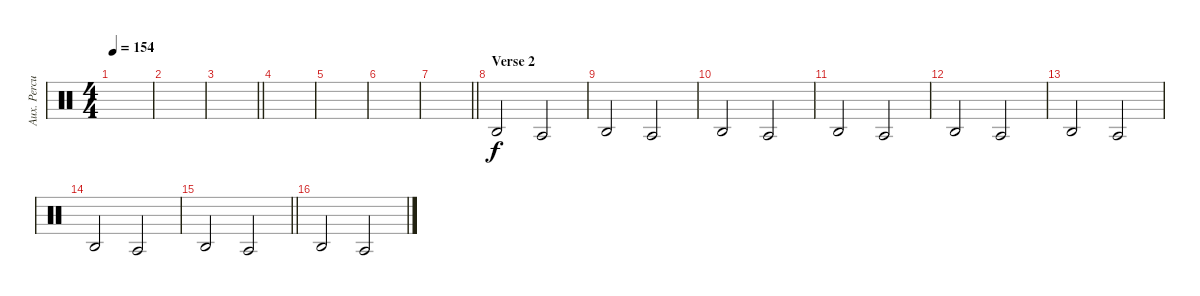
\track ("Aux. Percussion" "Aux. Percu") {instrument percussion}
\staff {score}
\articulation defaults
\ts (4 4)
\tempo 154
\clef neutral
\ks c
|
|
\barLineRight lightlight
|
|
|
|
\barLineRight lightlight
|
\section ("" "Verse 2")
"Agogo high (hit)".2 "Agogo tow (hit)".2 |
"Agogo high (hit)".2 "Agogo tow (hit)".2 |
"Agogo high (hit)".2 "Agogo tow (hit)".2 |
"Agogo high (hit)".2 "Agogo tow (hit)".2 |
"Agogo high (hit)".2 "Agogo tow (hit)".2 |
"Agogo high (hit)".2 "Agogo tow (hit)".2 |
"Agogo high (hit)".2 "Agogo tow (hit)".2 |
\barLineRight lightlight "Agogo high (hit)".2 "Agogo tow (hit)".2
|
"Agogo high (hit)".2 "Agogo tow (hit)".2
